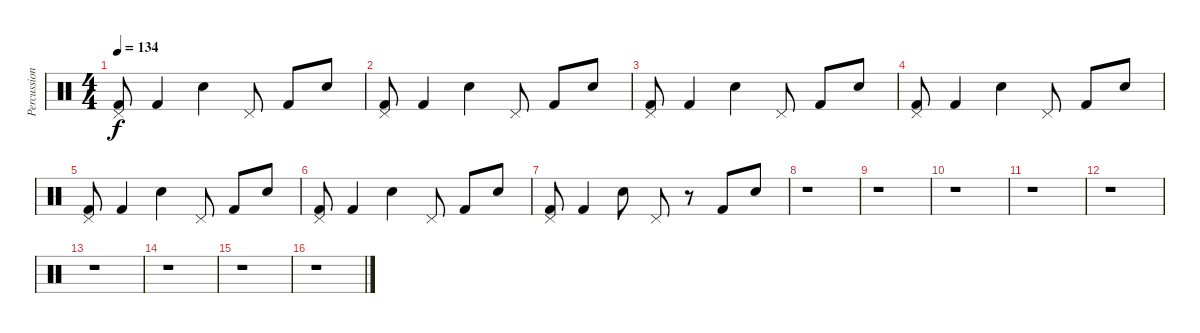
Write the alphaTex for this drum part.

\track ("Percussions à compléter" "Percussion") {instrument percussion}
\staff {score}
\articulation defaults
\ts (4 4)
\tempo 134
\clef neutral
\ks c
("Kick (hit) 2" "Pedal Hi-Hat (hit)").8{dy f} "Kick (hit) 2".4 "Snare (hit) 2".4 "Pedal Hi-Hat (hit)".8 "Kick (hit) 2".8 "Snare (hit) 2".8 |
("Kick (hit) 2" "Pedal Hi-Hat (hit)").8 "Kick (hit) 2".4 "Snare (hit) 2".4 "Pedal Hi-Hat (hit)".8 "Kick (hit) 2".8 "Snare (hit) 2".8 |
("Kick (hit) 2" "Pedal Hi-Hat (hit)").8 "Kick (hit) 2".4 "Snare (hit) 2".4 "Pedal Hi-Hat (hit)".8 "Kick (hit) 2".8 "Snare (hit) 2".8 |
("Kick (hit) 2" "Pedal Hi-Hat (hit)").8 "Kick (hit) 2".4 "Snare (hit) 2".4 "Pedal Hi-Hat (hit)".8 "Kick (hit) 2".8 "Snare (hit) 2".8 |
("Kick (hit) 2" "Pedal Hi-Hat (hit)").8 "Kick (hit) 2".4 "Snare (hit) 2".4 "Pedal Hi-Hat (hit)".8 "Kick (hit) 2".8 "Snare (hit) 2".8 |
("Kick (hit) 2" "Pedal Hi-Hat (hit)").8 "Kick (hit) 2".4 "Snare (hit) 2".4 "Pedal Hi-Hat (hit)".8 "Kick (hit) 2".8 "Snare (hit) 2".8 |
("Kick (hit) 2" "Pedal Hi-Hat (hit)").8 "Kick (hit) 2".4 "Snare (hit) 2".8 "Pedal Hi-Hat (hit)".8 r.8 "Kick (hit) 2".8 "Snare (hit) 2".8 |
r.1 |
r.1 |
r.1 |
r.1 |
r.1 |
r.1 |
r.1 |
r.1 |
r.1
